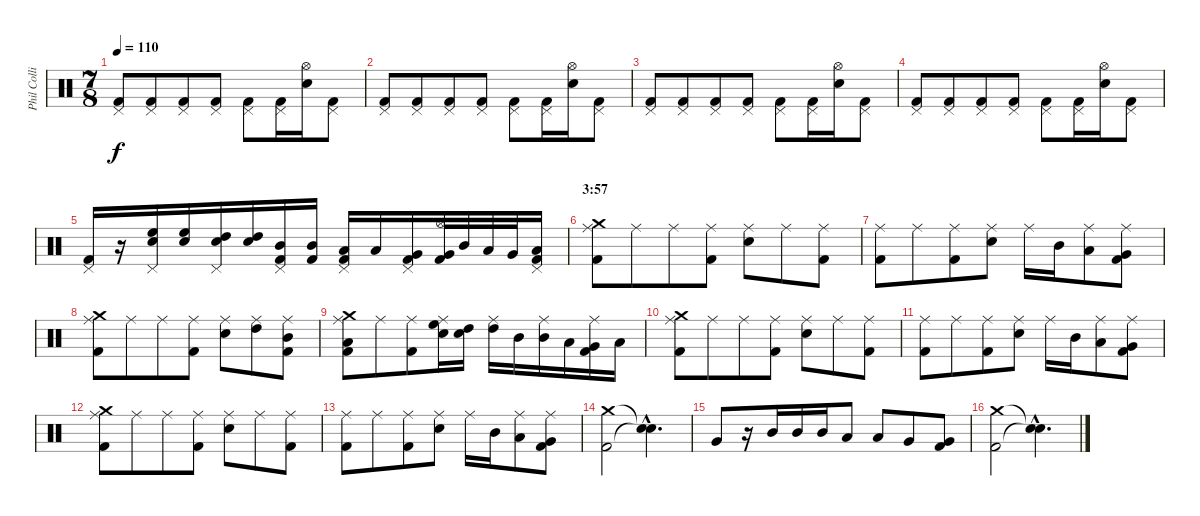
\track ("Phil Collins (drums)" "Phil Colli") {instrument percussion}
\staff {score}
\articulation defaults
\ts (7 8)
\tempo 110
\clef neutral
\ks c
("Pedal Hi-Hat (hit)" "Kick (hit) 2").8{dy f} ("Pedal Hi-Hat (hit)" "Kick (hit) 2").8 ("Pedal Hi-Hat (hit)" "Kick (hit) 2").8 ("Pedal Hi-Hat (hit)" "Kick (hit) 2").8 ("Pedal Hi-Hat (hit)" "Kick (hit) 2").8 ("Pedal Hi-Hat (hit)" "Kick (hit) 2").16 ("Hi-Hat (open)" "Electric Snare (hit)").16 ("Pedal Hi-Hat (hit)" "Kick (hit) 2").8 |
("Pedal Hi-Hat (hit)" "Kick (hit) 2").8 ("Pedal Hi-Hat (hit)" "Kick (hit) 2").8 ("Pedal Hi-Hat (hit)" "Kick (hit) 2").8 ("Pedal Hi-Hat (hit)" "Kick (hit) 2").8 ("Pedal Hi-Hat (hit)" "Kick (hit) 2").8 ("Pedal Hi-Hat (hit)" "Kick (hit) 2").16 ("Hi-Hat (open)" "Electric Snare (hit)").16 ("Pedal Hi-Hat (hit)" "Kick (hit) 2").8 |
("Pedal Hi-Hat (hit)" "Kick (hit) 2").8 ("Pedal Hi-Hat (hit)" "Kick (hit) 2").8 ("Pedal Hi-Hat (hit)" "Kick (hit) 2").8 ("Pedal Hi-Hat (hit)" "Kick (hit) 2").8 ("Pedal Hi-Hat (hit)" "Kick (hit) 2").8 ("Pedal Hi-Hat (hit)" "Kick (hit) 2").16 ("Hi-Hat (open)" "Electric Snare (hit)").16 ("Pedal Hi-Hat (hit)" "Kick (hit) 2").8 |
("Pedal Hi-Hat (hit)" "Kick (hit) 2").8 ("Pedal Hi-Hat (hit)" "Kick (hit) 2").8 ("Pedal Hi-Hat (hit)" "Kick (hit) 2").8 ("Pedal Hi-Hat (hit)" "Kick (hit) 2").8 ("Pedal Hi-Hat (hit)" "Kick (hit) 2").8 ("Pedal Hi-Hat (hit)" "Kick (hit) 2").16 ("Hi-Hat (open)" "Electric Snare (hit)").16 ("Pedal Hi-Hat (hit)" "Kick (hit) 2").8 |
("Pedal Hi-Hat (hit)" "Kick (hit) 2").16 r.16 ("High Floor Tom (hit)" "Pedal Hi-Hat (hit)" "Electric Snare (hit)").16 ("High Floor Tom (hit)" "Electric Snare (hit)").16 ("High Tom (hit)" "Pedal Hi-Hat (hit)" "Electric Snare (hit)").16 ("High Tom (hit)" "Electric Snare (hit)").16 ("Mid Tom (hit)" "Pedal Hi-Hat (hit)" "Kick (hit) 2").16 ("Mid Tom (hit)" "Kick (hit) 2").16 ("Low Tom (hit)" "Pedal Hi-Hat (hit)" "Kick (hit) 2").16 "Low Tom (hit)".16 ("Very Low Tom (hit)" "Pedal Hi-Hat (hit)" "Kick (hit) 2").16 ("Very Low Tom (hit)" "Hi-Hat (open)" "Kick (hit) 2").32 "Mid Tom (hit)".32 "Low Tom (hit)".32 "Very Low Tom (hit)".32 ("Low Floor Tom (hit)" "Pedal Hi-Hat (hit)" "Kick (hit) 2").16 |
\section ("" "3:57")
("Ride (middle)" "Crash medium (hit)" "Kick (hit) 2").8 "Ride (middle)".8 "Ride (middle)".8 ("Ride (middle)" "Kick (hit) 2").8 ("Ride (middle)" "Electric Snare (hit)").8 "Ride (middle)".8 ("Ride (middle)" "Kick (hit) 2").8 |
("Ride (middle)" "Kick (hit) 2").8 "Ride (middle)".8 ("Ride (middle)" "Kick (hit) 2").8 ("Ride (middle)" "Electric Snare (hit)").8 "Ride (middle)".16 "Mid Tom (hit)".16 ("Ride (middle)" "Low Tom (hit)").8 ("Ride (middle)" "Very Low Tom (hit)" "Kick (hit) 2").8 |
("Ride (middle)" "Crash medium (hit)" "Kick (hit) 2").8 "Ride (middle)".8 "Ride (middle)".8 ("Ride (middle)" "Kick (hit) 2").8 ("Ride (middle)" "Electric Snare (hit)").8 ("Ride (middle)" "High Tom (hit)").8 ("Ride (middle)" "Mid Tom (hit)" "Kick (hit) 2").8 |
("Crash medium (hit)" "Ride (middle)" "Low Tom (hit)" "Kick (hit) 2").8 "Ride (middle)".8 ("Ride (middle)" "Kick (hit) 2").8 ("Ride (middle)" "High Floor Tom (hit)" "Electric Snare (hit)").16 ("High Tom (hit)" "Electric Snare (hit)").16 ("Ride (middle)" "High Tom (hit)").16 "Mid Tom (hit)".16 ("Ride (middle)" "Mid Tom (hit)").16 "Low Tom (hit)".16 ("Ride (middle)" "Very Low Tom (hit)" "Kick (hit) 2").16 "Low Floor Tom (hit)".16 |
("Ride (middle)" "Crash medium (hit)" "Kick (hit) 2").8 "Ride (middle)".8 "Ride (middle)".8 ("Ride (middle)" "Kick (hit) 2").8 ("Ride (middle)" "Electric Snare (hit)").8 "Ride (middle)".8 ("Ride (middle)" "Kick (hit) 2").8 |
("Ride (middle)" "Kick (hit) 2").8 "Ride (middle)".8 ("Ride (middle)" "Kick (hit) 2").8 ("Ride (middle)" "Electric Snare (hit)").8 "Ride (middle)".16 "Mid Tom (hit)".16 ("Ride (middle)" "Low Tom (hit)").8 ("Ride (middle)" "Very Low Tom (hit)" "Kick (hit) 2").8 |
("Ride (middle)" "Crash medium (hit)" "Kick (hit) 2").8 "Ride (middle)".8 "Ride (middle)".8 ("Ride (middle)" "Kick (hit) 2").8 ("Ride (middle)" "Electric Snare (hit)").8 "Ride (middle)".8 ("Ride (middle)" "Kick (hit) 2").8 |
("Ride (middle)" "Kick (hit) 2").8 "Ride (middle)".8 ("Ride (middle)" "Kick (hit) 2").8 ("Ride (middle)" "Electric Snare (hit)").8 "Ride (middle)".16 "Mid Tom (hit)".16 ("Ride (middle)" "Low Tom (hit)").8 ("Ride (middle)" "Very Low Tom (hit)" "Kick (hit) 2").8 |
("Crash medium (hit)" "Kick (hit) 2").2 ("Snare (hit)"{hac t} "Snare (hit)"{hac t}).4{d} |
"Very Low Tom (hit)".8 r.16 "Mid Tom (hit)".16 "Mid Tom (hit)".16 "Mid Tom (hit)".16 "Low Tom (hit)".8 "Low Tom (hit)".8 "Very Low Tom (hit)".8 ("Very Low Tom (hit)" "Kick (hit) 2").8 |
("Crash medium (hit)" "Kick (hit) 2").2 ("Snare (hit)"{hac t} "Snare (hit)"{hac t}).4{d}
